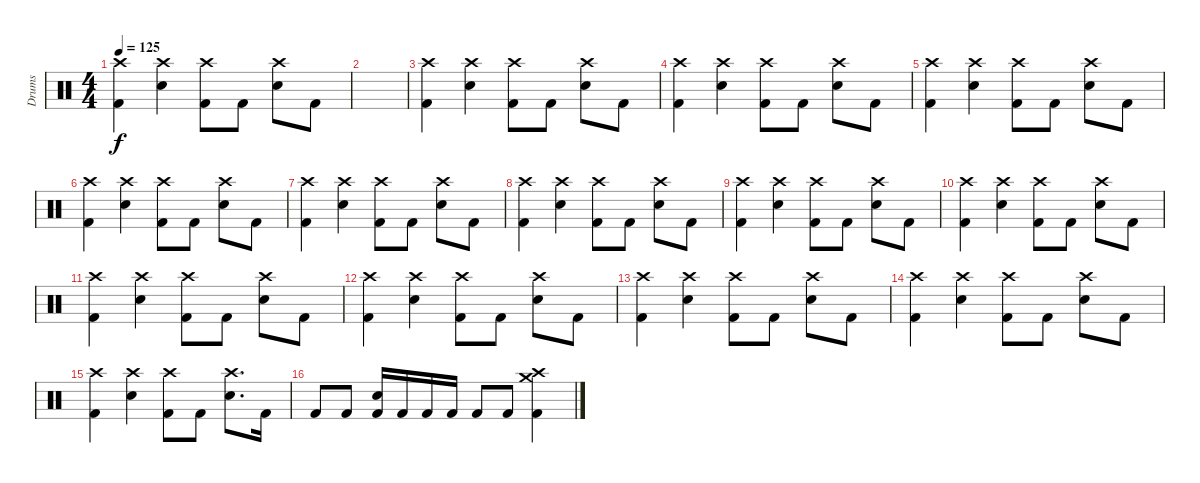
\track ("Drums" "Drums") {instrument percussion}
\staff {score}
\articulation defaults
\ts (4 4)
\tempo 125
\clef neutral
\ks c
("Kick (hit) 2" "Crash high (hit)").4{dy f} ("Snare (hit) 2" "Crash high (hit)").4 ("Kick (hit) 2" "Crash high (hit)").8 "Kick (hit) 2".8 ("Snare (hit) 2" "Crash high (hit)").8 "Kick (hit) 2".8 |
|
("Kick (hit) 2" "Crash high (hit)").4 ("Snare (hit) 2" "Crash high (hit)").4 ("Kick (hit) 2" "Crash high (hit)").8 "Kick (hit) 2".8 ("Snare (hit) 2" "Crash high (hit)").8 "Kick (hit) 2".8 |
("Kick (hit) 2" "Crash high (hit)").4 ("Snare (hit) 2" "Crash high (hit)").4 ("Kick (hit) 2" "Crash high (hit)").8 "Kick (hit) 2".8 ("Snare (hit) 2" "Crash high (hit)").8 "Kick (hit) 2".8 |
("Kick (hit) 2" "Crash high (hit)").4 ("Snare (hit) 2" "Crash high (hit)").4 ("Kick (hit) 2" "Crash high (hit)").8 "Kick (hit) 2".8 ("Snare (hit) 2" "Crash high (hit)").8 "Kick (hit) 2".8 |
("Kick (hit) 2" "Crash high (hit)").4 ("Snare (hit) 2" "Crash high (hit)").4 ("Kick (hit) 2" "Crash high (hit)").8 "Kick (hit) 2".8 ("Snare (hit) 2" "Crash high (hit)").8 "Kick (hit) 2".8 |
("Kick (hit) 2" "Crash high (hit)").4 ("Snare (hit) 2" "Crash high (hit)").4 ("Kick (hit) 2" "Crash high (hit)").8 "Kick (hit) 2".8 ("Snare (hit) 2" "Crash high (hit)").8 "Kick (hit) 2".8 |
("Kick (hit) 2" "Crash high (hit)").4 ("Snare (hit) 2" "Crash high (hit)").4 ("Kick (hit) 2" "Crash high (hit)").8 "Kick (hit) 2".8 ("Snare (hit) 2" "Crash high (hit)").8 "Kick (hit) 2".8 |
("Kick (hit) 2" "Crash high (hit)").4 ("Snare (hit) 2" "Crash high (hit)").4 ("Kick (hit) 2" "Crash high (hit)").8 "Kick (hit) 2".8 ("Snare (hit) 2" "Crash high (hit)").8 "Kick (hit) 2".8 |
("Kick (hit) 2" "Crash high (hit)").4 ("Snare (hit) 2" "Crash high (hit)").4 ("Kick (hit) 2" "Crash high (hit)").8 "Kick (hit) 2".8 ("Snare (hit) 2" "Crash high (hit)").8 "Kick (hit) 2".8 |
("Kick (hit) 2" "Crash high (hit)").4 ("Snare (hit) 2" "Crash high (hit)").4 ("Kick (hit) 2" "Crash high (hit)").8 "Kick (hit) 2".8 ("Snare (hit) 2" "Crash high (hit)").8 "Kick (hit) 2".8 |
("Kick (hit) 2" "Crash high (hit)").4 ("Snare (hit) 2" "Crash high (hit)").4 ("Kick (hit) 2" "Crash high (hit)").8 "Kick (hit) 2".8 ("Snare (hit) 2" "Crash high (hit)").8 "Kick (hit) 2".8 |
("Kick (hit) 2" "Crash high (hit)").4 ("Snare (hit) 2" "Crash high (hit)").4 ("Kick (hit) 2" "Crash high (hit)").8 "Kick (hit) 2".8 ("Snare (hit) 2" "Crash high (hit)").8 "Kick (hit) 2".8 |
("Kick (hit) 2" "Crash high (hit)").4 ("Snare (hit) 2" "Crash high (hit)").4 ("Kick (hit) 2" "Crash high (hit)").8 "Kick (hit) 2".8 ("Snare (hit) 2" "Crash high (hit)").8 "Kick (hit) 2".8 |
("Kick (hit) 2" "Crash high (hit)").4 ("Snare (hit) 2" "Crash high (hit)").4 ("Kick (hit) 2" "Crash high (hit)").8 "Kick (hit) 2".8 ("Snare (hit) 2" "Crash high (hit)").8{d} "Kick (hit) 2".16 |
"Kick (hit) 2".8 "Kick (hit) 2".8 ("Snare (hit) 2" "Kick (hit) 2").16 "Kick (hit) 2".16 "Kick (hit) 2".16 "Kick (hit) 2".16 "Kick (hit) 2".8 "Kick (hit) 2".8 ("Crash high (hit)" "Crash medium (hit)" "Kick (hit) 2").4
